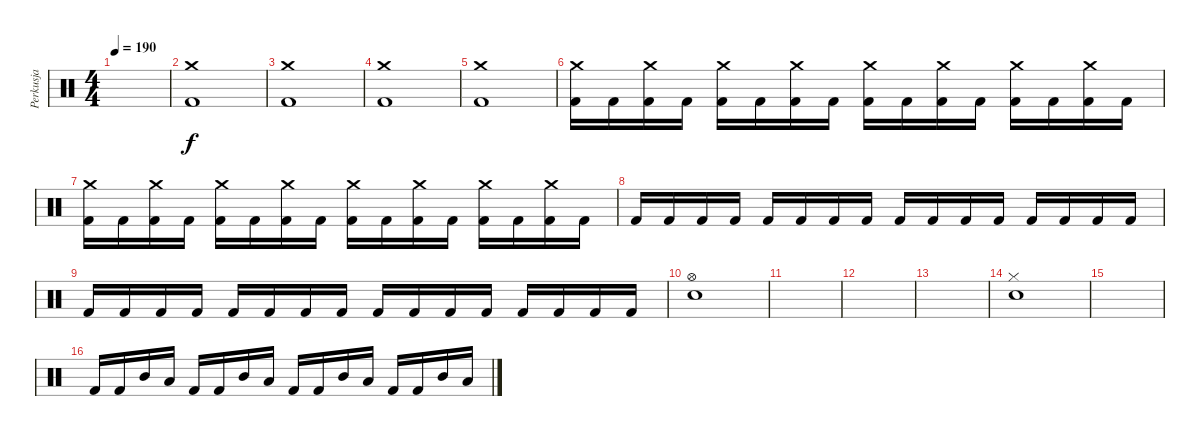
\track ("Perkusja" "Perkusja") {instrument percussion}
\staff {score}
\articulation defaults
\ts (4 4)
\tempo 190
\clef neutral
\ks c
|
("Crash medium (hit)" "Kick (hit) 2").1 |
("Crash medium (hit)" "Kick (hit) 2").1 |
("Crash medium (hit)" "Kick (hit) 2").1 |
("Crash medium (hit)" "Kick (hit) 2").1 |
("Crash medium (hit)" "Kick (hit) 2").16 "Kick (hit) 2".16 ("Crash medium (hit)" "Kick (hit) 2").16 "Kick (hit) 2".16 ("Crash medium (hit)" "Kick (hit) 2").16 "Kick (hit) 2".16 ("Crash medium (hit)" "Kick (hit) 2").16 "Kick (hit) 2".16 ("Crash medium (hit)" "Kick (hit) 2").16 "Kick (hit) 2".16 ("Crash medium (hit)" "Kick (hit) 2").16 "Kick (hit) 2".16 ("Crash medium (hit)" "Kick (hit) 2").16 "Kick (hit) 2".16 ("Crash medium (hit)" "Kick (hit) 2").16 "Kick (hit) 2".16 |
("Crash medium (hit)" "Kick (hit) 2").16 "Kick (hit) 2".16 ("Crash medium (hit)" "Kick (hit) 2").16 "Kick (hit) 2".16 ("Crash medium (hit)" "Kick (hit) 2").16 "Kick (hit) 2".16 ("Crash medium (hit)" "Kick (hit) 2").16 "Kick (hit) 2".16 ("Crash medium (hit)" "Kick (hit) 2").16 "Kick (hit) 2".16 ("Crash medium (hit)" "Kick (hit) 2").16 "Kick (hit) 2".16 ("Crash medium (hit)" "Kick (hit) 2").16 "Kick (hit) 2".16 ("Crash medium (hit)" "Kick (hit) 2").16 "Kick (hit) 2".16 |
"Kick (hit) 2".16 "Kick (hit) 2".16 "Kick (hit) 2".16 "Kick (hit) 2".16 "Kick (hit) 2".16 "Kick (hit) 2".16 "Kick (hit) 2".16 "Kick (hit) 2".16 "Kick (hit) 2".16 "Kick (hit) 2".16 "Kick (hit) 2".16 "Kick (hit) 2".16 "Kick (hit) 2".16 "Kick (hit) 2".16 "Kick (hit) 2".16 "Kick (hit) 2".16 |
"Kick (hit) 2".16 "Kick (hit) 2".16 "Kick (hit) 2".16 "Kick (hit) 2".16 "Kick (hit) 2".16 "Kick (hit) 2".16 "Kick (hit) 2".16 "Kick (hit) 2".16 "Kick (hit) 2".16 "Kick (hit) 2".16 "Kick (hit) 2".16 "Kick (hit) 2".16 "Kick (hit) 2".16 "Kick (hit) 2".16 "Kick (hit) 2".16 "Kick (hit) 2".16 |
("Hi-Hat (open)" "Electric Snare (hit)").1 |
|
|
|
("Hi-Hat (closed)" "Electric Snare (hit)").1 |
|
"Kick (hit) 2".16 "Kick (hit) 2".16 "Mid Tom (hit)".16 "Low Tom (hit)".16 "Kick (hit) 2".16 "Kick (hit) 2".16 "Mid Tom (hit)".16 "Low Tom (hit)".16 "Kick (hit) 2".16 "Kick (hit) 2".16 "Mid Tom (hit)".16 "Low Tom (hit)".16 "Kick (hit) 2".16 "Kick (hit) 2".16 "Mid Tom (hit)".16 "Low Tom (hit)".16
